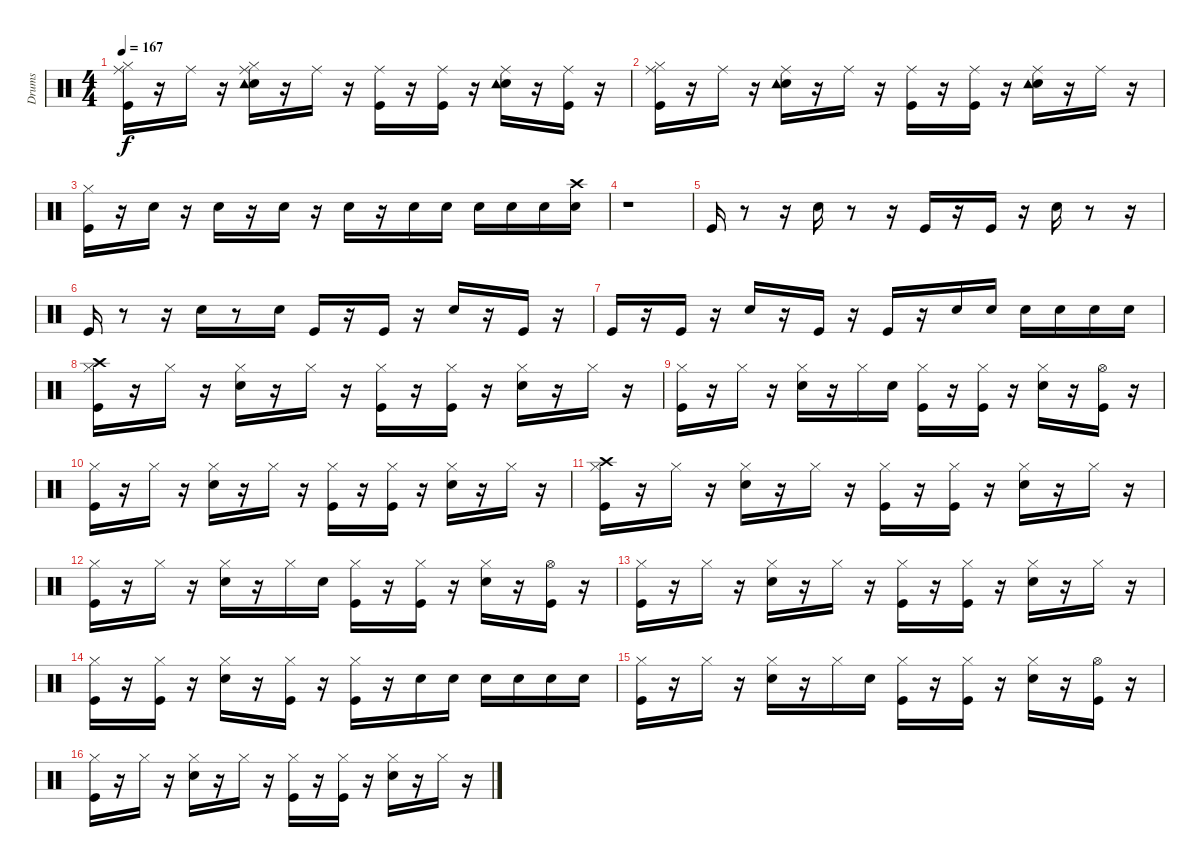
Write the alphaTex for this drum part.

\track ("Drums" "Drums") {instrument percussion}
\staff {score}
\articulation defaults
\ts (4 4)
\tempo 167
\clef neutral
\ks c
("Kick (hit)" "Hi-Hat (closed)" "Ride (middle)").16{dy f} r.16 "Ride (middle)".16 r.16 ("Snare (hit) 2" "Hi-Hat (closed)" "Ride (middle)" "Tambourine (hit)").16 r.16 "Ride (middle)".16 r.16 ("Kick (hit)" "Ride (middle)").16 r.16 ("Kick (hit)" "Ride (middle)").16 r.16 ("Snare (hit) 2" "Ride (middle)" "Tambourine (hit)").16 r.16 ("Kick (hit)" "Ride (middle)").16 r.16 |
("Kick (hit)" "Hi-Hat (closed)" "Ride (middle)").16 r.16 "Ride (middle)".16 r.16 ("Snare (hit) 2" "Ride (middle)" "Tambourine (hit)").16 r.16 "Ride (middle)".16 r.16 ("Kick (hit)" "Ride (middle)").16 r.16 ("Kick (hit)" "Ride (middle)").16 r.16 ("Snare (hit) 2" "Ride (middle)" "Tambourine (hit)").16 r.16 "Ride (middle)".16 r.16 |
("Kick (hit)" "Hi-Hat (closed)").16 r.16 "Snare (hit) 2".16 r.16 "Snare (hit) 2".16 r.16 "Snare (hit) 2".16 r.16 "Snare (hit) 2".16 r.16 "Snare (hit) 2".16 "Snare (hit) 2".16 "Snare (hit) 2".16 "Snare (hit) 2".16 "Snare (hit) 2".16 ("Snare (hit) 2" "Crash high (hit)").16 |
r.1 |
"Kick (hit)".16 r.8 r.16 "Snare (hit) 2".16 r.8 r.16 "Kick (hit)".16 r.16 "Kick (hit)".16 r.16 "Snare (hit) 2".16 r.8 r.16 |
"Kick (hit)".16 r.8 r.16 "Snare (hit) 2".16 r.8 "Snare (hit) 2".16 "Kick (hit)".16 r.16 "Kick (hit)".16 r.16 "Snare (hit) 2".16 r.16 "Kick (hit)".16 r.16 |
"Kick (hit)".16 r.16 "Kick (hit)".16 r.16 "Snare (hit) 2".16 r.16 "Kick (hit)".16 r.16 "Kick (hit)".16 r.16 "Snare (hit) 2".16 "Snare (hit) 2".16 "Snare (hit) 2".16 "Snare (hit) 2".16 "Snare (hit) 2".16 "Snare (hit) 2".16 |
("Kick (hit)" "Hi-Hat (closed)" "Crash high (hit)").16 r.16 "Hi-Hat (closed)".16 r.16 ("Snare (hit) 2" "Hi-Hat (closed)").16 r.16 "Hi-Hat (closed)".16 r.16 ("Kick (hit)" "Hi-Hat (closed)").16 r.16 ("Kick (hit)" "Hi-Hat (closed)").16 r.16 ("Snare (hit) 2" "Hi-Hat (closed)").16 r.16 "Hi-Hat (closed)".16 r.16 |
("Kick (hit)" "Hi-Hat (closed)").16 r.16 "Hi-Hat (closed)".16 r.16 ("Snare (hit) 2" "Hi-Hat (closed)").16 r.16 "Hi-Hat (closed)".16 "Snare (hit) 2".16 ("Kick (hit)" "Hi-Hat (closed)").16 r.16 ("Kick (hit)" "Hi-Hat (closed)").16 r.16 ("Snare (hit) 2" "Hi-Hat (closed)").16 r.16 ("Kick (hit)" "Hi-Hat (open)").16 r.16 |
("Kick (hit)" "Hi-Hat (closed)").16 r.16 "Hi-Hat (closed)".16 r.16 ("Snare (hit) 2" "Hi-Hat (closed)").16 r.16 "Hi-Hat (closed)".16 r.16 ("Kick (hit)" "Hi-Hat (closed)").16 r.16 ("Kick (hit)" "Hi-Hat (closed)").16 r.16 ("Snare (hit) 2" "Hi-Hat (closed)").16 r.16 "Hi-Hat (closed)".16 r.16 |
("Kick (hit)" "Hi-Hat (closed)" "Crash high (hit)").16 r.16 "Hi-Hat (closed)".16 r.16 ("Snare (hit) 2" "Hi-Hat (closed)").16 r.16 "Hi-Hat (closed)".16 r.16 ("Kick (hit)" "Hi-Hat (closed)").16 r.16 ("Kick (hit)" "Hi-Hat (closed)").16 r.16 ("Snare (hit) 2" "Hi-Hat (closed)").16 r.16 "Hi-Hat (closed)".16 r.16 |
("Kick (hit)" "Hi-Hat (closed)").16 r.16 "Hi-Hat (closed)".16 r.16 ("Snare (hit) 2" "Hi-Hat (closed)").16 r.16 "Hi-Hat (closed)".16 "Snare (hit) 2".16 ("Kick (hit)" "Hi-Hat (closed)").16 r.16 ("Kick (hit)" "Hi-Hat (closed)").16 r.16 ("Snare (hit) 2" "Hi-Hat (closed)").16 r.16 ("Kick (hit)" "Hi-Hat (open)").16 r.16 |
("Kick (hit)" "Hi-Hat (closed)").16 r.16 "Hi-Hat (closed)".16 r.16 ("Snare (hit) 2" "Hi-Hat (closed)").16 r.16 "Hi-Hat (closed)".16 r.16 ("Kick (hit)" "Hi-Hat (closed)").16 r.16 ("Kick (hit)" "Hi-Hat (closed)").16 r.16 ("Snare (hit) 2" "Hi-Hat (closed)").16 r.16 "Hi-Hat (closed)".16 r.16 |
("Kick (hit)" "Hi-Hat (closed)").16 r.16 ("Kick (hit)" "Hi-Hat (closed)").16 r.16 ("Snare (hit) 2" "Hi-Hat (closed)").16 r.16 ("Kick (hit)" "Hi-Hat (closed)").16 r.16 ("Kick (hit)" "Hi-Hat (closed)").16 r.16 "Snare (hit) 2".16 "Snare (hit) 2".16 "Snare (hit) 2".16 "Snare (hit) 2".16 "Snare (hit) 2".16 "Snare (hit) 2".16 |
("Kick (hit)" "Hi-Hat (closed)").16 r.16 "Hi-Hat (closed)".16 r.16 ("Snare (hit) 2" "Hi-Hat (closed)").16 r.16 "Hi-Hat (closed)".16 "Snare (hit) 2".16 ("Kick (hit)" "Hi-Hat (closed)").16 r.16 ("Kick (hit)" "Hi-Hat (closed)").16 r.16 ("Snare (hit) 2" "Hi-Hat (closed)").16 r.16 ("Kick (hit)" "Hi-Hat (open)").16 r.16 |
("Kick (hit)" "Hi-Hat (closed)").16 r.16 "Hi-Hat (closed)".16 r.16 ("Snare (hit) 2" "Hi-Hat (closed)").16 r.16 "Hi-Hat (closed)".16 r.16 ("Kick (hit)" "Hi-Hat (closed)").16 r.16 ("Kick (hit)" "Hi-Hat (closed)").16 r.16 ("Snare (hit) 2" "Hi-Hat (closed)").16 r.16 "Hi-Hat (closed)".16 r.16
